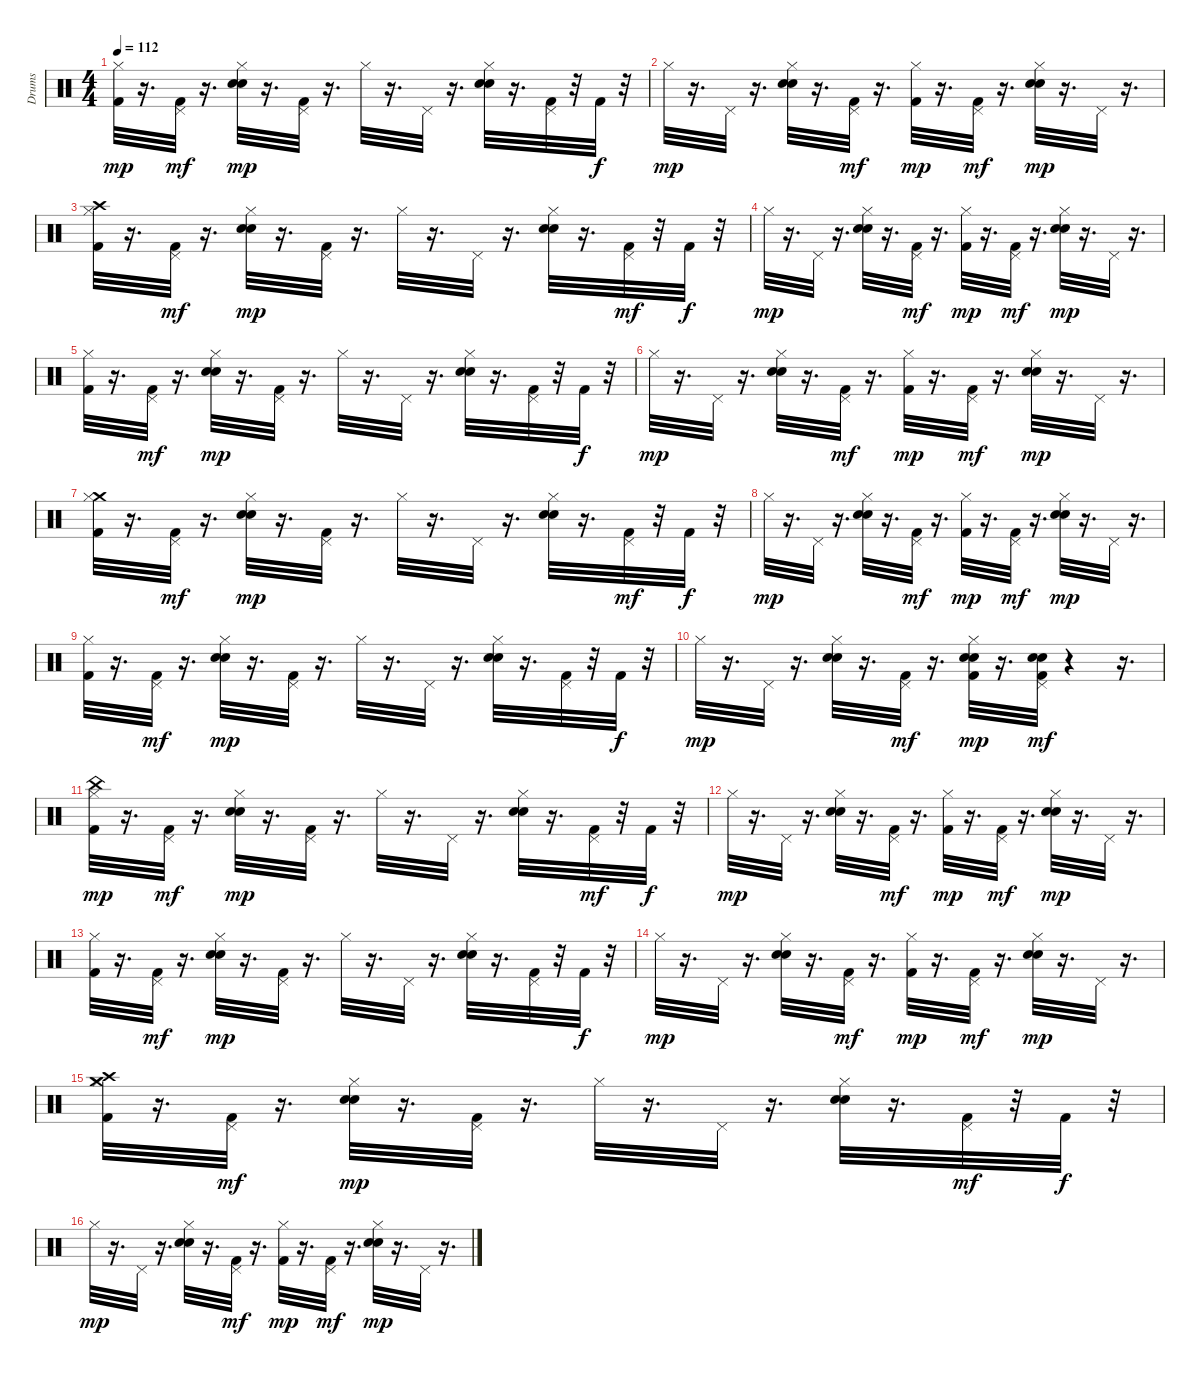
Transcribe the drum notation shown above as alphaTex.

\track ("Drums" "Drums") {instrument percussion}
\staff {score}
\articulation defaults
\ts (4 4)
\tempo 112
\clef neutral
\ks c
("Hi-Hat (closed)" "Kick (hit) 2").32{dy mp} r.16{d} ("Pedal Hi-Hat (hit)" "Kick (hit) 2").32{dy mf} r.16{d} ("Hi-Hat (closed)" "Electric Snare (hit)" "Hand Clap (hit)").32{dy mp} r.16{d} ("Pedal Hi-Hat (hit)" "Kick (hit) 2").32 r.16{d} "Hi-Hat (closed)".32 r.16{d} "Pedal Hi-Hat (hit)".32 r.16{d} ("Hi-Hat (closed)" "Electric Snare (hit)" "Hand Clap (hit)").32 r.16{d} ("Pedal Hi-Hat (hit)" "Kick (hit) 2").32 r.32 "Kick (hit) 2".32{dy f} r.32 |
"Hi-Hat (closed)".32{dy mp} r.16{d} "Pedal Hi-Hat (hit)".32 r.16{d} ("Hi-Hat (closed)" "Electric Snare (hit)" "Hand Clap (hit)").32 r.16{d} ("Pedal Hi-Hat (hit)" "Kick (hit) 2").32{dy mf} r.16{d} ("Hi-Hat (closed)" "Kick (hit) 2").32{dy mp} r.16{d} ("Pedal Hi-Hat (hit)" "Kick (hit) 2").32{dy mf} r.16{d} ("Hi-Hat (closed)" "Electric Snare (hit)" "Hand Clap (hit)").32{dy mp} r.16{d} "Pedal Hi-Hat (hit)".32 r.16{d} |
("Crash high (hit)" "Hi-Hat (closed)" "Kick (hit) 2").32 r.16{d} ("Pedal Hi-Hat (hit)" "Kick (hit) 2").32{dy mf} r.16{d} ("Hi-Hat (closed)" "Electric Snare (hit)" "Hand Clap (hit)").32{dy mp} r.16{d} ("Pedal Hi-Hat (hit)" "Kick (hit) 2").32 r.16{d} "Hi-Hat (closed)".32 r.16{d} "Pedal Hi-Hat (hit)".32 r.16{d} ("Hi-Hat (closed)" "Electric Snare (hit)" "Hand Clap (hit)").32 r.16{d} ("Pedal Hi-Hat (hit)" "Kick (hit) 2").32{dy mf} r.32 "Kick (hit) 2".32{dy f} r.32 |
"Hi-Hat (closed)".32{dy mp} r.16{d} "Pedal Hi-Hat (hit)".32 r.16{d} ("Hi-Hat (closed)" "Electric Snare (hit)" "Hand Clap (hit)").32 r.16{d} ("Pedal Hi-Hat (hit)" "Kick (hit) 2").32{dy mf} r.16{d} ("Hi-Hat (closed)" "Kick (hit) 2").32{dy mp} r.16{d} ("Pedal Hi-Hat (hit)" "Kick (hit) 2").32{dy mf} r.16{d} ("Hi-Hat (closed)" "Electric Snare (hit)" "Hand Clap (hit)").32{dy mp} r.16{d} "Pedal Hi-Hat (hit)".32 r.16{d} |
("Hi-Hat (closed)" "Kick (hit) 2").32 r.16{d} ("Pedal Hi-Hat (hit)" "Kick (hit) 2").32{dy mf} r.16{d} ("Hi-Hat (closed)" "Electric Snare (hit)" "Hand Clap (hit)").32{dy mp} r.16{d} ("Pedal Hi-Hat (hit)" "Kick (hit) 2").32 r.16{d} "Hi-Hat (closed)".32 r.16{d} "Pedal Hi-Hat (hit)".32 r.16{d} ("Hi-Hat (closed)" "Electric Snare (hit)" "Hand Clap (hit)").32 r.16{d} ("Pedal Hi-Hat (hit)" "Kick (hit) 2").32 r.32 "Kick (hit) 2".32{dy f} r.32 |
"Hi-Hat (closed)".32{dy mp} r.16{d} "Pedal Hi-Hat (hit)".32 r.16{d} ("Hi-Hat (closed)" "Electric Snare (hit)" "Hand Clap (hit)").32 r.16{d} ("Pedal Hi-Hat (hit)" "Kick (hit) 2").32{dy mf} r.16{d} ("Hi-Hat (closed)" "Kick (hit) 2").32{dy mp} r.16{d} ("Pedal Hi-Hat (hit)" "Kick (hit) 2").32{dy mf} r.16{d} ("Hi-Hat (closed)" "Electric Snare (hit)" "Hand Clap (hit)").32{dy mp} r.16{d} "Pedal Hi-Hat (hit)".32 r.16{d} |
("Crash medium (hit)" "Hi-Hat (closed)" "Kick (hit) 2").32 r.16{d} ("Pedal Hi-Hat (hit)" "Kick (hit) 2").32{dy mf} r.16{d} ("Hi-Hat (closed)" "Electric Snare (hit)" "Hand Clap (hit)").32{dy mp} r.16{d} ("Pedal Hi-Hat (hit)" "Kick (hit) 2").32 r.16{d} "Hi-Hat (closed)".32 r.16{d} "Pedal Hi-Hat (hit)".32 r.16{d} ("Hi-Hat (closed)" "Electric Snare (hit)" "Hand Clap (hit)").32 r.16{d} ("Pedal Hi-Hat (hit)" "Kick (hit) 2").32{dy mf} r.32 "Kick (hit) 2".32{dy f} r.32 |
"Hi-Hat (closed)".32{dy mp} r.16{d} "Pedal Hi-Hat (hit)".32 r.16{d} ("Hi-Hat (closed)" "Electric Snare (hit)" "Hand Clap (hit)").32 r.16{d} ("Pedal Hi-Hat (hit)" "Kick (hit) 2").32{dy mf} r.16{d} ("Hi-Hat (closed)" "Kick (hit) 2").32{dy mp} r.16{d} ("Pedal Hi-Hat (hit)" "Kick (hit) 2").32{dy mf} r.16{d} ("Hi-Hat (closed)" "Electric Snare (hit)" "Hand Clap (hit)").32{dy mp} r.16{d} "Pedal Hi-Hat (hit)".32 r.16{d} |
("Hi-Hat (closed)" "Kick (hit) 2").32 r.16{d} ("Pedal Hi-Hat (hit)" "Kick (hit) 2").32{dy mf} r.16{d} ("Hi-Hat (closed)" "Electric Snare (hit)" "Hand Clap (hit)").32{dy mp} r.16{d} ("Pedal Hi-Hat (hit)" "Kick (hit) 2").32 r.16{d} "Hi-Hat (closed)".32 r.16{d} "Pedal Hi-Hat (hit)".32 r.16{d} ("Hi-Hat (closed)" "Electric Snare (hit)" "Hand Clap (hit)").32 r.16{d} ("Pedal Hi-Hat (hit)" "Kick (hit) 2").32 r.32 "Kick (hit) 2".32{dy f} r.32 |
"Hi-Hat (closed)".32{dy mp} r.16{d} "Pedal Hi-Hat (hit)".32 r.16{d} ("Hi-Hat (closed)" "Electric Snare (hit)" "Hand Clap (hit)").32 r.16{d} ("Pedal Hi-Hat (hit)" "Kick (hit) 2").32{dy mf} r.16{d} ("Hi-Hat (closed)" "Electric Snare (hit)" "Hand Clap (hit)" "Kick (hit) 2").32{dy mp} r.16{d} ("Pedal Hi-Hat (hit)" "Electric Snare (hit)" "Hand Clap (hit)" "Kick (hit) 2").32{dy mf} r.4 r.16{d} |
("China (hit)" "Hi-Hat (closed)" "Kick (hit) 2").32{dy mp} r.16{d} ("Pedal Hi-Hat (hit)" "Kick (hit) 2").32{dy mf} r.16{d} ("Hi-Hat (closed)" "Electric Snare (hit)" "Hand Clap (hit)").32{dy mp} r.16{d} ("Pedal Hi-Hat (hit)" "Kick (hit) 2").32 r.16{d} "Hi-Hat (closed)".32 r.16{d} "Pedal Hi-Hat (hit)".32 r.16{d} ("Hi-Hat (closed)" "Electric Snare (hit)" "Hand Clap (hit)").32 r.16{d} ("Pedal Hi-Hat (hit)" "Kick (hit) 2").32{dy mf} r.32 "Kick (hit) 2".32{dy f} r.32 |
"Hi-Hat (closed)".32{dy mp} r.16{d} "Pedal Hi-Hat (hit)".32 r.16{d} ("Hi-Hat (closed)" "Electric Snare (hit)" "Hand Clap (hit)").32 r.16{d} ("Pedal Hi-Hat (hit)" "Kick (hit) 2").32{dy mf} r.16{d} ("Hi-Hat (closed)" "Kick (hit) 2").32{dy mp} r.16{d} ("Pedal Hi-Hat (hit)" "Kick (hit) 2").32{dy mf} r.16{d} ("Hi-Hat (closed)" "Electric Snare (hit)" "Hand Clap (hit)").32{dy mp} r.16{d} "Pedal Hi-Hat (hit)".32 r.16{d} |
("Hi-Hat (closed)" "Kick (hit) 2").32 r.16{d} ("Pedal Hi-Hat (hit)" "Kick (hit) 2").32{dy mf} r.16{d} ("Hi-Hat (closed)" "Electric Snare (hit)" "Hand Clap (hit)").32{dy mp} r.16{d} ("Pedal Hi-Hat (hit)" "Kick (hit) 2").32 r.16{d} "Hi-Hat (closed)".32 r.16{d} "Pedal Hi-Hat (hit)".32 r.16{d} ("Hi-Hat (closed)" "Electric Snare (hit)" "Hand Clap (hit)").32 r.16{d} ("Pedal Hi-Hat (hit)" "Kick (hit) 2").32 r.32 "Kick (hit) 2".32{dy f} r.32 |
"Hi-Hat (closed)".32{dy mp} r.16{d} "Pedal Hi-Hat (hit)".32 r.16{d} ("Hi-Hat (closed)" "Electric Snare (hit)" "Hand Clap (hit)").32 r.16{d} ("Pedal Hi-Hat (hit)" "Kick (hit) 2").32{dy mf} r.16{d} ("Hi-Hat (closed)" "Kick (hit) 2").32{dy mp} r.16{d} ("Pedal Hi-Hat (hit)" "Kick (hit) 2").32{dy mf} r.16{d} ("Hi-Hat (closed)" "Electric Snare (hit)" "Hand Clap (hit)").32{dy mp} r.16{d} "Pedal Hi-Hat (hit)".32 r.16{d} |
("Crash medium (hit)" "Crash high (hit)" "Hi-Hat (closed)" "Kick (hit) 2").32 r.16{d} ("Pedal Hi-Hat (hit)" "Kick (hit) 2").32{dy mf} r.16{d} ("Hi-Hat (closed)" "Electric Snare (hit)" "Hand Clap (hit)").32{dy mp} r.16{d} ("Pedal Hi-Hat (hit)" "Kick (hit) 2").32 r.16{d} "Hi-Hat (closed)".32 r.16{d} "Pedal Hi-Hat (hit)".32 r.16{d} ("Hi-Hat (closed)" "Electric Snare (hit)" "Hand Clap (hit)").32 r.16{d} ("Pedal Hi-Hat (hit)" "Kick (hit) 2").32{dy mf} r.32 "Kick (hit) 2".32{dy f} r.32 |
"Hi-Hat (closed)".32{dy mp} r.16{d} "Pedal Hi-Hat (hit)".32 r.16{d} ("Hi-Hat (closed)" "Electric Snare (hit)" "Hand Clap (hit)").32 r.16{d} ("Pedal Hi-Hat (hit)" "Kick (hit) 2").32{dy mf} r.16{d} ("Hi-Hat (closed)" "Kick (hit) 2").32{dy mp} r.16{d} ("Pedal Hi-Hat (hit)" "Kick (hit) 2").32{dy mf} r.16{d} ("Hi-Hat (closed)" "Electric Snare (hit)" "Hand Clap (hit)").32{dy mp} r.16{d} "Pedal Hi-Hat (hit)".32 r.16{d}
